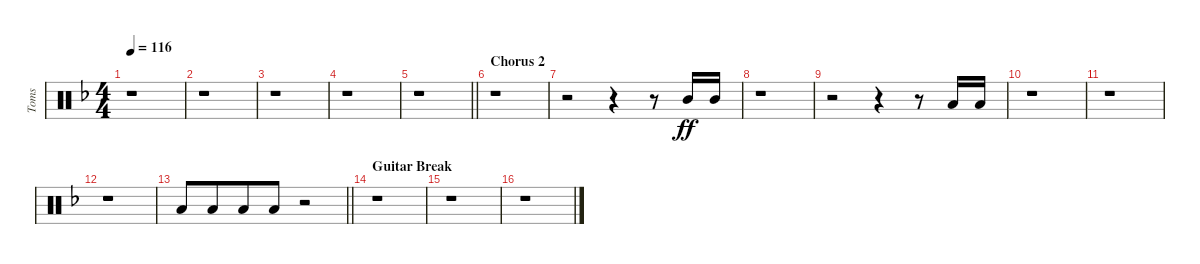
\track ("Toms" "Toms") {instrument percussion}
\staff {score}
\articulation defaults
\ts (4 4)
\tempo 116
\clef neutral
\ks f
r.1{dy ff} |
r.1 |
r.1 |
r.1 |
\barLineRight lightlight
r.1 |
\section ("" "Chorus 2")
r.1 |
r.2 r.4{beam merge} r.8 "Mid Tom (hit)".16{beam Up} "Mid Tom (hit)".16{beam Up} |
r.1 |
r.2 r.4 r.8{balance 4} "Low Tom (hit)".16{beam Up} "Low Tom (hit)".16{beam Up} |
r.1 |
r.1 |
r.1 |
\barLineRight lightlight "Low Tom (hit)".8{beam Up} "Low Tom (hit)".8{beam Up beam merge} "Low Tom (hit)".8{beam Up} "Low Tom (hit)".8{beam Up}
r.2 |
\section ("" "Guitar Break")
r.1 |
r.1 |
r.1
